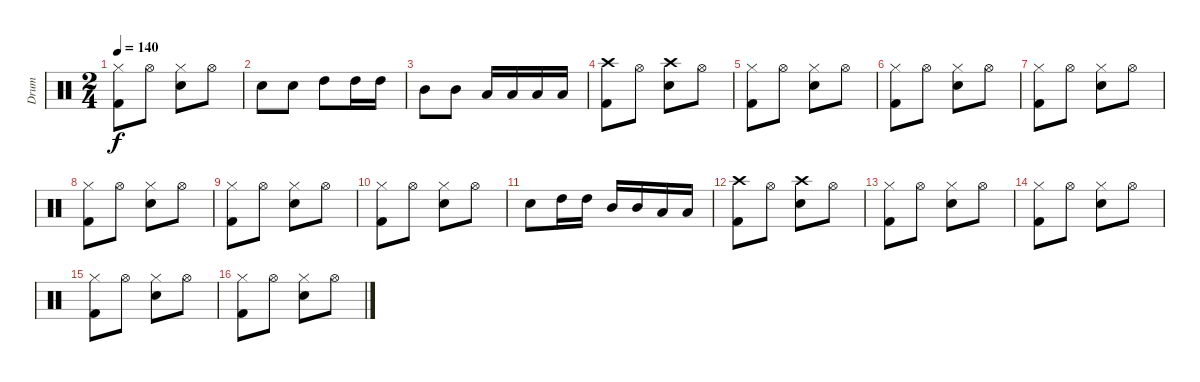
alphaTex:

\track ("Drum" "Drum") {instrument percussion}
\staff {score}
\articulation defaults
\ts (2 4)
\tempo 140
\clef neutral
\ks c
("Kick (hit) 2" "Hi-Hat (closed)").8{dy f} "Hi-Hat (open)".8 ("Hi-Hat (closed)" "Electric Snare (hit)").8 "Hi-Hat (open)".8 |
"Electric Snare (hit)".8 "Electric Snare (hit)".8 "High Tom (hit)".8 "High Tom (hit)".16 "High Tom (hit)".16 |
"Mid Tom (hit)".8 "Mid Tom (hit)".8 "Low Tom (hit)".16 "Low Tom (hit)".16 "Low Tom (hit)".16 "Low Tom (hit)".16 |
("Crash high (hit)" "Kick (hit) 2").8 "Hi-Hat (open)".8 ("Crash high (hit)" "Electric Snare (hit)").8 "Hi-Hat (open)".8 |
("Kick (hit) 2" "Hi-Hat (closed)").8 "Hi-Hat (open)".8 ("Hi-Hat (closed)" "Electric Snare (hit)").8 "Hi-Hat (open)".8 |
("Kick (hit) 2" "Hi-Hat (closed)").8 "Hi-Hat (open)".8 ("Hi-Hat (closed)" "Electric Snare (hit)").8 "Hi-Hat (open)".8 |
("Kick (hit) 2" "Hi-Hat (closed)").8 "Hi-Hat (open)".8 ("Hi-Hat (closed)" "Electric Snare (hit)").8 "Hi-Hat (open)".8 |
("Kick (hit) 2" "Hi-Hat (closed)").8 "Hi-Hat (open)".8 ("Hi-Hat (closed)" "Electric Snare (hit)").8 "Hi-Hat (open)".8 |
("Kick (hit) 2" "Hi-Hat (closed)").8 "Hi-Hat (open)".8 ("Hi-Hat (closed)" "Electric Snare (hit)").8 "Hi-Hat (open)".8 |
("Kick (hit) 2" "Hi-Hat (closed)").8 "Hi-Hat (open)".8 ("Hi-Hat (closed)" "Electric Snare (hit)").8 "Hi-Hat (open)".8 |
"Electric Snare (hit)".8 "High Tom (hit)".16 "High Tom (hit)".16 "Mid Tom (hit)".16 "Mid Tom (hit)".16 "Low Tom (hit)".16 "Low Tom (hit)".16 |
("Crash high (hit)" "Kick (hit) 2").8 "Hi-Hat (open)".8 ("Crash high (hit)" "Electric Snare (hit)").8 "Hi-Hat (open)".8 |
("Kick (hit) 2" "Hi-Hat (closed)").8 "Hi-Hat (open)".8 ("Hi-Hat (closed)" "Electric Snare (hit)").8 "Hi-Hat (open)".8 |
("Kick (hit) 2" "Hi-Hat (closed)").8 "Hi-Hat (open)".8 ("Hi-Hat (closed)" "Electric Snare (hit)").8 "Hi-Hat (open)".8 |
("Kick (hit) 2" "Hi-Hat (closed)").8 "Hi-Hat (open)".8 ("Hi-Hat (closed)" "Electric Snare (hit)").8 "Hi-Hat (open)".8 |
("Kick (hit) 2" "Hi-Hat (closed)").8 "Hi-Hat (open)".8 ("Hi-Hat (closed)" "Electric Snare (hit)").8 "Hi-Hat (open)".8
